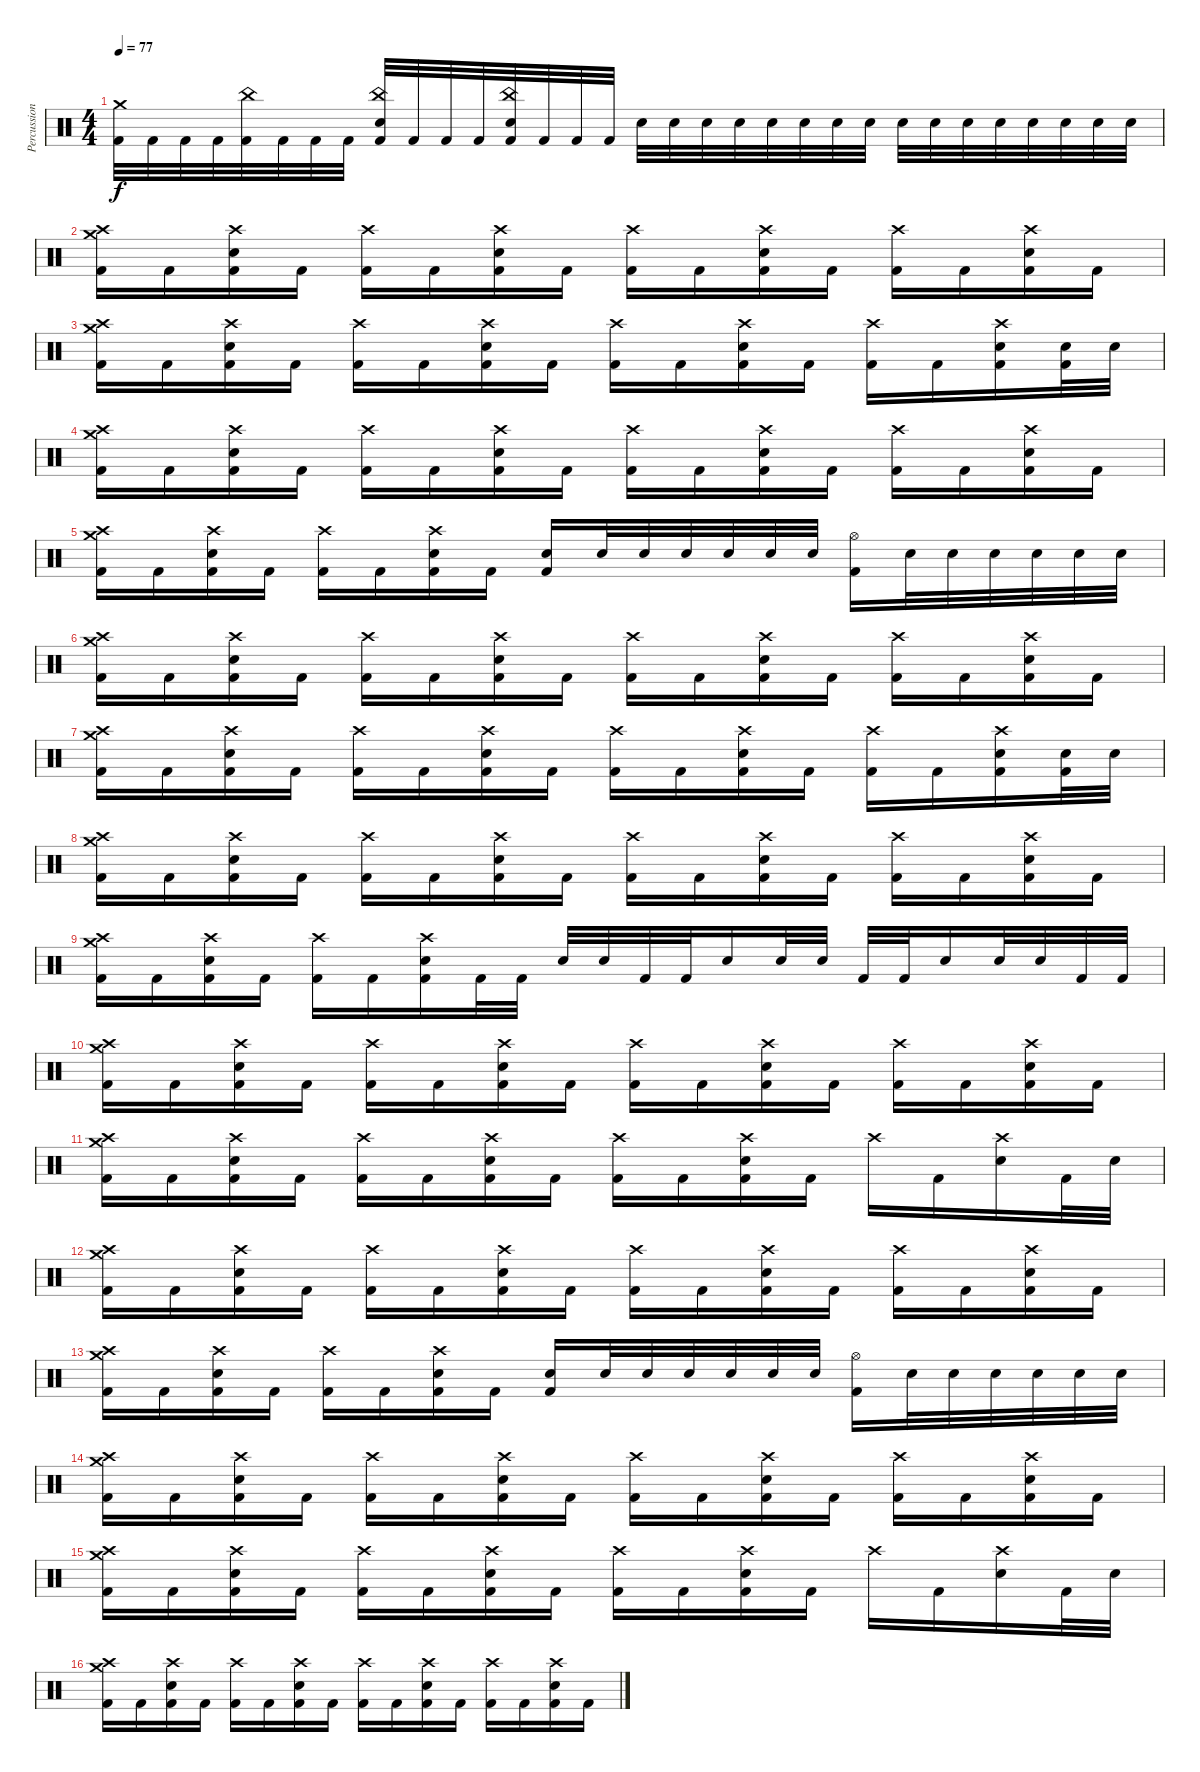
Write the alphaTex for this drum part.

\track ("Percussion" "Percussion") {instrument percussion}
\staff {score}
\articulation defaults
\ts (4 4)
\tempo 77
\clef neutral
\ks c
("Crash medium (hit)" "Kick (hit) 2").32{dy f} "Kick (hit) 2".32 "Kick (hit) 2".32 "Kick (hit) 2".32 ("China (hit)" "Kick (hit) 2").32 "Kick (hit) 2".32 "Kick (hit) 2".32 "Kick (hit) 2".32 ("China (hit)" "Electric Snare (hit)" "Kick (hit) 2").32 "Kick (hit) 2".32 "Kick (hit) 2".32 "Kick (hit) 2".32 ("China (hit)" "Electric Snare (hit)" "Kick (hit) 2").32 "Kick (hit) 2".32 "Kick (hit) 2".32 "Kick (hit) 2".32 "Electric Snare (hit)".32 "Electric Snare (hit)".32 "Electric Snare (hit)".32 "Electric Snare (hit)".32 "Electric Snare (hit)".32 "Electric Snare (hit)".32 "Electric Snare (hit)".32 "Electric Snare (hit)".32 "Electric Snare (hit)".32 "Electric Snare (hit)".32 "Electric Snare (hit)".32 "Electric Snare (hit)".32 "Electric Snare (hit)".32 "Electric Snare (hit)".32 "Electric Snare (hit)".32 "Electric Snare (hit)".32 |
("Crash medium (hit)" "Crash high (hit)" "Kick (hit) 2").16 "Kick (hit) 2".16 ("Crash high (hit)" "Electric Snare (hit)" "Kick (hit) 2").16 "Kick (hit) 2".16 ("Crash high (hit)" "Kick (hit) 2").16 "Kick (hit) 2".16 ("Crash high (hit)" "Electric Snare (hit)" "Kick (hit) 2").16 "Kick (hit) 2".16 ("Crash high (hit)" "Kick (hit) 2").16 "Kick (hit) 2".16 ("Crash high (hit)" "Electric Snare (hit)" "Kick (hit) 2").16 "Kick (hit) 2".16 ("Crash high (hit)" "Kick (hit) 2").16 "Kick (hit) 2".16 ("Crash high (hit)" "Electric Snare (hit)" "Kick (hit) 2").16 "Kick (hit) 2".16 |
("Crash medium (hit)" "Crash high (hit)" "Kick (hit) 2").16 "Kick (hit) 2".16 ("Crash high (hit)" "Electric Snare (hit)" "Kick (hit) 2").16 "Kick (hit) 2".16 ("Crash high (hit)" "Kick (hit) 2").16 "Kick (hit) 2".16 ("Crash high (hit)" "Electric Snare (hit)" "Kick (hit) 2").16 "Kick (hit) 2".16 ("Crash high (hit)" "Kick (hit) 2").16 "Kick (hit) 2".16 ("Crash high (hit)" "Electric Snare (hit)" "Kick (hit) 2").16 "Kick (hit) 2".16 ("Crash high (hit)" "Kick (hit) 2").16 "Kick (hit) 2".16 ("Crash high (hit)" "Electric Snare (hit)" "Kick (hit) 2").16 ("Electric Snare (hit)" "Kick (hit) 2").32 "Electric Snare (hit)".32 |
("Crash medium (hit)" "Crash high (hit)" "Kick (hit) 2").16 "Kick (hit) 2".16 ("Crash high (hit)" "Electric Snare (hit)" "Kick (hit) 2").16 "Kick (hit) 2".16 ("Crash high (hit)" "Kick (hit) 2").16 "Kick (hit) 2".16 ("Crash high (hit)" "Electric Snare (hit)" "Kick (hit) 2").16 "Kick (hit) 2".16 ("Crash high (hit)" "Kick (hit) 2").16 "Kick (hit) 2".16 ("Crash high (hit)" "Electric Snare (hit)" "Kick (hit) 2").16 "Kick (hit) 2".16 ("Crash high (hit)" "Kick (hit) 2").16 "Kick (hit) 2".16 ("Crash high (hit)" "Electric Snare (hit)" "Kick (hit) 2").16 "Kick (hit) 2".16 |
("Crash medium (hit)" "Crash high (hit)" "Kick (hit) 2").16 "Kick (hit) 2".16 ("Crash high (hit)" "Electric Snare (hit)" "Kick (hit) 2").16 "Kick (hit) 2".16 ("Crash high (hit)" "Kick (hit) 2").16 "Kick (hit) 2".16 ("Crash high (hit)" "Electric Snare (hit)" "Kick (hit) 2").16 "Kick (hit) 2".16 ("Electric Snare (hit)" "Kick (hit) 2").16 "Electric Snare (hit)".32 "Electric Snare (hit)".32 "Electric Snare (hit)".32 "Electric Snare (hit)".32 "Electric Snare (hit)".32 "Electric Snare (hit)".32 ("Hi-Hat (open)" "Kick (hit) 2").16 "Electric Snare (hit)".32 "Electric Snare (hit)".32 "Electric Snare (hit)".32 "Electric Snare (hit)".32 "Electric Snare (hit)".32 "Electric Snare (hit)".32 |
("Crash medium (hit)" "Crash high (hit)" "Kick (hit) 2").16 "Kick (hit) 2".16 ("Crash high (hit)" "Electric Snare (hit)" "Kick (hit) 2").16 "Kick (hit) 2".16 ("Crash high (hit)" "Kick (hit) 2").16 "Kick (hit) 2".16 ("Crash high (hit)" "Electric Snare (hit)" "Kick (hit) 2").16 "Kick (hit) 2".16 ("Crash high (hit)" "Kick (hit) 2").16 "Kick (hit) 2".16 ("Crash high (hit)" "Electric Snare (hit)" "Kick (hit) 2").16 "Kick (hit) 2".16 ("Crash high (hit)" "Kick (hit) 2").16 "Kick (hit) 2".16 ("Crash high (hit)" "Electric Snare (hit)" "Kick (hit) 2").16 "Kick (hit) 2".16 |
("Crash medium (hit)" "Crash high (hit)" "Kick (hit) 2").16 "Kick (hit) 2".16 ("Crash high (hit)" "Electric Snare (hit)" "Kick (hit) 2").16 "Kick (hit) 2".16 ("Crash high (hit)" "Kick (hit) 2").16 "Kick (hit) 2".16 ("Crash high (hit)" "Electric Snare (hit)" "Kick (hit) 2").16 "Kick (hit) 2".16 ("Crash high (hit)" "Kick (hit) 2").16 "Kick (hit) 2".16 ("Crash high (hit)" "Electric Snare (hit)" "Kick (hit) 2").16 "Kick (hit) 2".16 ("Crash high (hit)" "Kick (hit) 2").16 "Kick (hit) 2".16 ("Crash high (hit)" "Electric Snare (hit)" "Kick (hit) 2").16 ("Electric Snare (hit)" "Kick (hit) 2").32 "Electric Snare (hit)".32 |
("Crash medium (hit)" "Crash high (hit)" "Kick (hit) 2").16 "Kick (hit) 2".16 ("Crash high (hit)" "Electric Snare (hit)" "Kick (hit) 2").16 "Kick (hit) 2".16 ("Crash high (hit)" "Kick (hit) 2").16 "Kick (hit) 2".16 ("Crash high (hit)" "Electric Snare (hit)" "Kick (hit) 2").16 "Kick (hit) 2".16 ("Crash high (hit)" "Kick (hit) 2").16 "Kick (hit) 2".16 ("Crash high (hit)" "Electric Snare (hit)" "Kick (hit) 2").16 "Kick (hit) 2".16 ("Crash high (hit)" "Kick (hit) 2").16 "Kick (hit) 2".16 ("Crash high (hit)" "Electric Snare (hit)" "Kick (hit) 2").16 "Kick (hit) 2".16 |
("Crash medium (hit)" "Crash high (hit)" "Kick (hit) 2").16 "Kick (hit) 2".16 ("Crash high (hit)" "Electric Snare (hit)" "Kick (hit) 2").16 "Kick (hit) 2".16 ("Crash high (hit)" "Kick (hit) 2").16 "Kick (hit) 2".16 ("Crash high (hit)" "Electric Snare (hit)" "Kick (hit) 2").16 "Kick (hit) 2".32 "Kick (hit) 2".32 "Electric Snare (hit)".32 "Electric Snare (hit)".32 "Kick (hit) 2".32 "Kick (hit) 2".32 "Electric Snare (hit)".16 "Electric Snare (hit)".32 "Electric Snare (hit)".32 "Kick (hit) 2".32 "Kick (hit) 2".32 "Electric Snare (hit)".16 "Electric Snare (hit)".32 "Electric Snare (hit)".32 "Kick (hit) 2".32 "Kick (hit) 2".32 |
("Crash medium (hit)" "Crash high (hit)" "Kick (hit) 2").16 "Kick (hit) 2".16 ("Crash high (hit)" "Electric Snare (hit)" "Kick (hit) 2").16 "Kick (hit) 2".16 ("Crash high (hit)" "Kick (hit) 2").16 "Kick (hit) 2".16 ("Crash high (hit)" "Electric Snare (hit)" "Kick (hit) 2").16 "Kick (hit) 2".16 ("Crash high (hit)" "Kick (hit) 2").16 "Kick (hit) 2".16 ("Crash high (hit)" "Electric Snare (hit)" "Kick (hit) 2").16 "Kick (hit) 2".16 ("Crash high (hit)" "Kick (hit) 2").16 "Kick (hit) 2".16 ("Crash high (hit)" "Electric Snare (hit)" "Kick (hit) 2").16 "Kick (hit) 2".16 |
("Crash medium (hit)" "Crash high (hit)" "Kick (hit) 2").16 "Kick (hit) 2".16 ("Crash high (hit)" "Electric Snare (hit)" "Kick (hit) 2").16 "Kick (hit) 2".16 ("Crash high (hit)" "Kick (hit) 2").16 "Kick (hit) 2".16 ("Crash high (hit)" "Electric Snare (hit)" "Kick (hit) 2").16 "Kick (hit) 2".16 ("Crash high (hit)" "Kick (hit) 2").16 "Kick (hit) 2".16 ("Crash high (hit)" "Electric Snare (hit)" "Kick (hit) 2").16 "Kick (hit) 2".16 "Crash high (hit)".16 "Kick (hit) 2".16 ("Crash high (hit)" "Electric Snare (hit)").16 "Kick (hit) 2".32 "Electric Snare (hit)".32 |
("Crash medium (hit)" "Crash high (hit)" "Kick (hit) 2").16 "Kick (hit) 2".16 ("Crash high (hit)" "Electric Snare (hit)" "Kick (hit) 2").16 "Kick (hit) 2".16 ("Crash high (hit)" "Kick (hit) 2").16 "Kick (hit) 2".16 ("Crash high (hit)" "Electric Snare (hit)" "Kick (hit) 2").16 "Kick (hit) 2".16 ("Crash high (hit)" "Kick (hit) 2").16 "Kick (hit) 2".16 ("Crash high (hit)" "Electric Snare (hit)" "Kick (hit) 2").16 "Kick (hit) 2".16 ("Crash high (hit)" "Kick (hit) 2").16 "Kick (hit) 2".16 ("Crash high (hit)" "Electric Snare (hit)" "Kick (hit) 2").16 "Kick (hit) 2".16 |
("Crash medium (hit)" "Crash high (hit)" "Kick (hit) 2").16 "Kick (hit) 2".16 ("Crash high (hit)" "Electric Snare (hit)" "Kick (hit) 2").16 "Kick (hit) 2".16 ("Crash high (hit)" "Kick (hit) 2").16 "Kick (hit) 2".16 ("Crash high (hit)" "Electric Snare (hit)" "Kick (hit) 2").16 "Kick (hit) 2".16 ("Electric Snare (hit)" "Kick (hit) 2").16 "Electric Snare (hit)".32 "Electric Snare (hit)".32 "Electric Snare (hit)".32 "Electric Snare (hit)".32 "Electric Snare (hit)".32 "Electric Snare (hit)".32 ("Hi-Hat (open)" "Kick (hit) 2").16 "Electric Snare (hit)".32 "Electric Snare (hit)".32 "Electric Snare (hit)".32 "Electric Snare (hit)".32 "Electric Snare (hit)".32 "Electric Snare (hit)".32 |
("Crash medium (hit)" "Crash high (hit)" "Kick (hit) 2").16 "Kick (hit) 2".16 ("Crash high (hit)" "Electric Snare (hit)" "Kick (hit) 2").16 "Kick (hit) 2".16 ("Crash high (hit)" "Kick (hit) 2").16 "Kick (hit) 2".16 ("Crash high (hit)" "Electric Snare (hit)" "Kick (hit) 2").16 "Kick (hit) 2".16 ("Crash high (hit)" "Kick (hit) 2").16 "Kick (hit) 2".16 ("Crash high (hit)" "Electric Snare (hit)" "Kick (hit) 2").16 "Kick (hit) 2".16 ("Crash high (hit)" "Kick (hit) 2").16 "Kick (hit) 2".16 ("Crash high (hit)" "Electric Snare (hit)" "Kick (hit) 2").16 "Kick (hit) 2".16 |
("Crash medium (hit)" "Crash high (hit)" "Kick (hit) 2").16 "Kick (hit) 2".16 ("Crash high (hit)" "Electric Snare (hit)" "Kick (hit) 2").16 "Kick (hit) 2".16 ("Crash high (hit)" "Kick (hit) 2").16 "Kick (hit) 2".16 ("Crash high (hit)" "Electric Snare (hit)" "Kick (hit) 2").16 "Kick (hit) 2".16 ("Crash high (hit)" "Kick (hit) 2").16 "Kick (hit) 2".16 ("Crash high (hit)" "Electric Snare (hit)" "Kick (hit) 2").16 "Kick (hit) 2".16 "Crash high (hit)".16 "Kick (hit) 2".16 ("Crash high (hit)" "Electric Snare (hit)").16 "Kick (hit) 2".32 "Electric Snare (hit)".32 |
("Crash medium (hit)" "Crash high (hit)" "Kick (hit) 2").16 "Kick (hit) 2".16 ("Crash high (hit)" "Electric Snare (hit)" "Kick (hit) 2").16 "Kick (hit) 2".16 ("Crash high (hit)" "Kick (hit) 2").16 "Kick (hit) 2".16 ("Crash high (hit)" "Electric Snare (hit)" "Kick (hit) 2").16 "Kick (hit) 2".16 ("Crash high (hit)" "Kick (hit) 2").16 "Kick (hit) 2".16 ("Crash high (hit)" "Electric Snare (hit)" "Kick (hit) 2").16 "Kick (hit) 2".16 ("Crash high (hit)" "Kick (hit) 2").16 "Kick (hit) 2".16 ("Crash high (hit)" "Electric Snare (hit)" "Kick (hit) 2").16 "Kick (hit) 2".16
